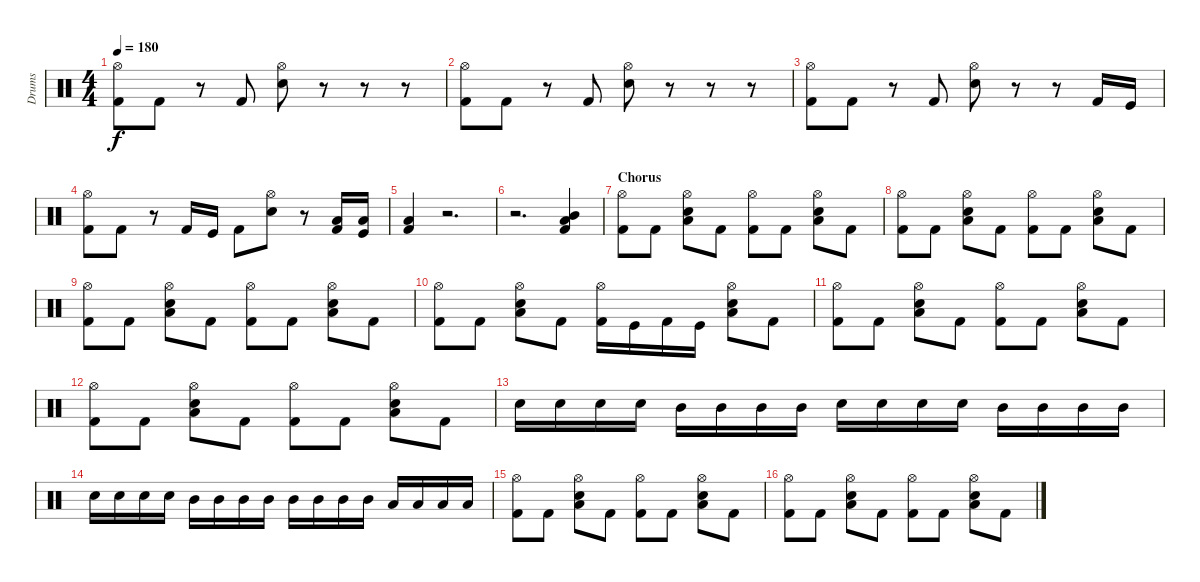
\track ("Drums" "Drums") {instrument percussion}
\staff {score}
\articulation defaults
\ts (4 4)
\tempo 180
\clef neutral
\ks c
("Hi-Hat (open)" "Kick (hit) 2").8{dy f} "Kick (hit) 2".8 r.8 "Kick (hit) 2".8 ("Hi-Hat (open)" "Electric Snare (hit)").8 r.8 r.8 r.8 |
("Hi-Hat (open)" "Kick (hit) 2").8 "Kick (hit) 2".8 r.8 "Kick (hit) 2".8 ("Hi-Hat (open)" "Electric Snare (hit)").8 r.8 r.8 r.8 |
("Hi-Hat (open)" "Kick (hit) 2").8 "Kick (hit) 2".8 r.8 "Kick (hit) 2".8 ("Hi-Hat (open)" "Electric Snare (hit)").8 r.8 r.8 "Kick (hit) 2".16 "Kick (hit)".16 |
("Hi-Hat (open)" "Kick (hit) 2").8 "Kick (hit) 2".8 r.8 "Kick (hit) 2".16 "Kick (hit)".16 "Kick (hit) 2".8 ("Hi-Hat (open)" "Electric Snare (hit)").8 r.8 ("Low Tom (hit)" "Kick (hit) 2").16 ("Low Tom (hit)" "Kick (hit)").16 |
("Low Tom (hit)" "Kick (hit) 2").4 r.2{d} |
r.2{d} ("Mid Tom (hit)" "Low Tom (hit)" "Kick (hit) 2").4 |
\section ("" "Chorus")
("Hi-Hat (open)" "Kick (hit) 2").8 "Kick (hit) 2".8 ("Hi-Hat (open)" "Electric Snare (hit)" "Low Tom (hit)").8 "Kick (hit) 2".8 ("Hi-Hat (open)" "Kick (hit) 2").8 "Kick (hit) 2".8 ("Hi-Hat (open)" "Electric Snare (hit)" "Low Tom (hit)").8 "Kick (hit) 2".8 |
("Hi-Hat (open)" "Kick (hit) 2").8 "Kick (hit) 2".8 ("Hi-Hat (open)" "Electric Snare (hit)" "Low Tom (hit)").8 "Kick (hit) 2".8 ("Hi-Hat (open)" "Kick (hit) 2").8 "Kick (hit) 2".8 ("Hi-Hat (open)" "Electric Snare (hit)" "Low Tom (hit)").8 "Kick (hit) 2".8 |
("Hi-Hat (open)" "Kick (hit) 2").8 "Kick (hit) 2".8 ("Hi-Hat (open)" "Electric Snare (hit)" "Low Tom (hit)").8 "Kick (hit) 2".8 ("Hi-Hat (open)" "Kick (hit) 2").8 "Kick (hit) 2".8 ("Hi-Hat (open)" "Electric Snare (hit)" "Low Tom (hit)").8 "Kick (hit) 2".8 |
("Hi-Hat (open)" "Kick (hit) 2").8 "Kick (hit) 2".8 ("Hi-Hat (open)" "Electric Snare (hit)" "Low Tom (hit)").8 "Kick (hit) 2".8 ("Hi-Hat (open)" "Kick (hit) 2").16 "Kick (hit)".16 "Kick (hit) 2".16 "Kick (hit)".16 ("Hi-Hat (open)" "Electric Snare (hit)" "Low Tom (hit)").8 "Kick (hit) 2".8 |
("Hi-Hat (open)" "Kick (hit) 2").8 "Kick (hit) 2".8 ("Hi-Hat (open)" "Electric Snare (hit)" "Low Tom (hit)").8 "Kick (hit) 2".8 ("Hi-Hat (open)" "Kick (hit) 2").8 "Kick (hit) 2".8 ("Hi-Hat (open)" "Electric Snare (hit)" "Low Tom (hit)").8 "Kick (hit) 2".8 |
("Hi-Hat (open)" "Kick (hit) 2").8 "Kick (hit) 2".8 ("Hi-Hat (open)" "Electric Snare (hit)" "Low Tom (hit)").8 "Kick (hit) 2".8 ("Hi-Hat (open)" "Kick (hit) 2").8 "Kick (hit) 2".8 ("Hi-Hat (open)" "Electric Snare (hit)" "Low Tom (hit)").8 "Kick (hit) 2".8 |
"Electric Snare (hit)".16 "Electric Snare (hit)".16 "Electric Snare (hit)".16 "Electric Snare (hit)".16 "Mid Tom (hit)".16 "Mid Tom (hit)".16 "Mid Tom (hit)".16 "Mid Tom (hit)".16 "Electric Snare (hit)".16 "Electric Snare (hit)".16 "Electric Snare (hit)".16 "Electric Snare (hit)".16 "Mid Tom (hit)".16 "Mid Tom (hit)".16 "Mid Tom (hit)".16 "Mid Tom (hit)".16 |
"Electric Snare (hit)".16 "Electric Snare (hit)".16 "Electric Snare (hit)".16 "Electric Snare (hit)".16 "Mid Tom (hit)".16 "Mid Tom (hit)".16 "Mid Tom (hit)".16 "Mid Tom (hit)".16 "Mid Tom (hit)".16 "Mid Tom (hit)".16 "Mid Tom (hit)".16 "Mid Tom (hit)".16 "Low Tom (hit)".16 "Low Tom (hit)".16 "Low Tom (hit)".16 "Low Tom (hit)".16 |
("Hi-Hat (open)" "Kick (hit) 2").8 "Kick (hit) 2".8 ("Hi-Hat (open)" "Electric Snare (hit)" "Low Tom (hit)").8 "Kick (hit) 2".8 ("Hi-Hat (open)" "Kick (hit) 2").8 "Kick (hit) 2".8 ("Hi-Hat (open)" "Electric Snare (hit)" "Low Tom (hit)").8 "Kick (hit) 2".8 |
("Hi-Hat (open)" "Kick (hit) 2").8 "Kick (hit) 2".8 ("Hi-Hat (open)" "Electric Snare (hit)" "Low Tom (hit)").8 "Kick (hit) 2".8 ("Hi-Hat (open)" "Kick (hit) 2").8 "Kick (hit) 2".8 ("Hi-Hat (open)" "Electric Snare (hit)" "Low Tom (hit)").8 "Kick (hit) 2".8
